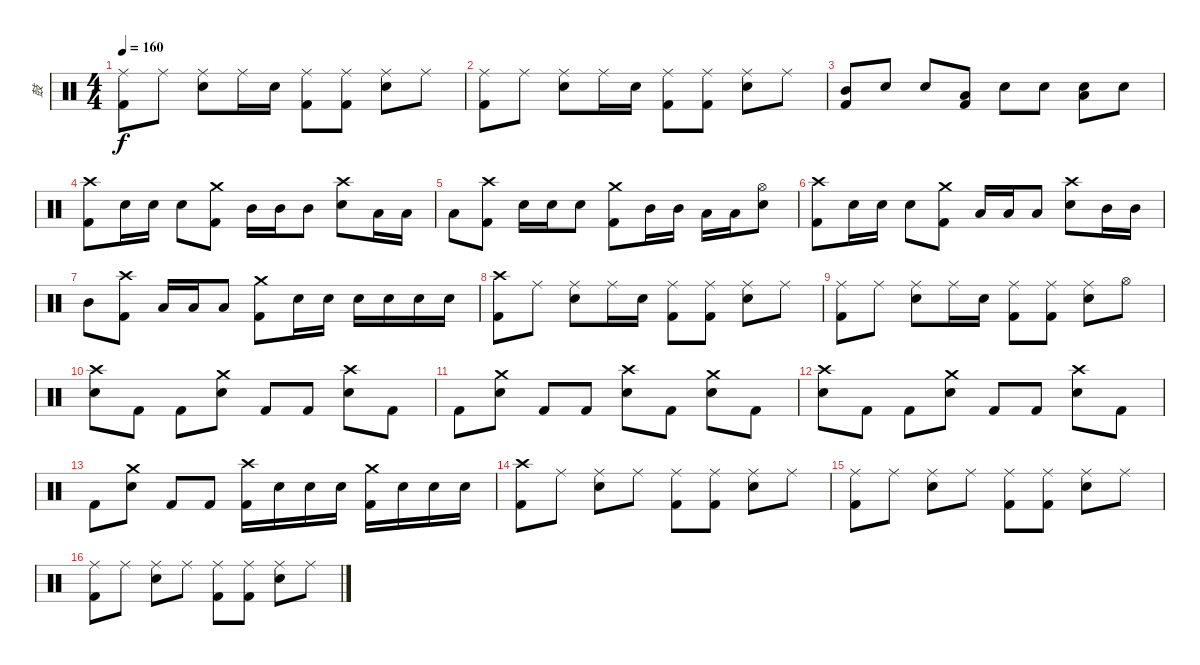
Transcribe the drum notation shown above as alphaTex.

\track ("鼓" "鼓") {instrument percussion}
\staff {score}
\articulation defaults
\ts (4 4)
\tempo 160
\clef neutral
\ks c
("Ride (middle)" "Kick (hit) 2").8{dy f} "Ride (middle)".8 ("Ride (middle)" "Snare (hit) 2").8 "Ride (middle)".16 "Snare (hit) 2".16 ("Ride (middle)" "Kick (hit) 2").8 ("Ride (middle)" "Kick (hit) 2").8 ("Ride (middle)" "Snare (hit) 2").8 "Ride (middle)".8 |
("Ride (middle)" "Kick (hit) 2").8 "Ride (middle)".8 ("Ride (middle)" "Snare (hit) 2").8 "Ride (middle)".16 "Snare (hit) 2".16 ("Ride (middle)" "Kick (hit) 2").8 ("Ride (middle)" "Kick (hit) 2").8 ("Ride (middle)" "Snare (hit) 2").8 "Ride (middle)".8 |
("Mid Tom (hit)" "Kick (hit) 2").8 "Snare (hit) 2".8 "Snare (hit) 2".8 ("Low Tom (hit)" "Kick (hit) 2").8 "Snare (hit) 2".8 "Snare (hit) 2".8 ("Low Floor Tom (hit)" "Snare (hit) 2").8 "Snare (hit) 2".8 |
("Crash high (hit)" "Kick (hit) 2").8 "Snare (hit) 2".16 "Snare (hit) 2".16 "Snare (hit) 2".8 ("Crash medium (hit)" "Kick (hit) 2").8 "Mid Tom (hit)".16 "Mid Tom (hit)".16 "Mid Tom (hit)".8 ("Crash high (hit)" "Snare (hit) 2").8 "Low Tom (hit)".16 "Low Tom (hit)".16 |
"Low Tom (hit)".8 ("Crash high (hit)" "Kick (hit) 2").8 "Snare (hit) 2".16 "Snare (hit) 2".16 "Snare (hit) 2".8 ("Crash medium (hit)" "Kick (hit) 2").8 "Mid Tom (hit)".16 "Mid Tom (hit)".16 "Low Tom (hit)".16 "Low Floor Tom (hit)".16 ("Hi-Hat (open)" "Snare (hit) 2").8 |
("Crash high (hit)" "Kick (hit) 2").8 "Snare (hit) 2".16 "Snare (hit) 2".16 "Snare (hit) 2".8 ("Crash medium (hit)" "Kick (hit) 2").8 "Low Tom (hit)".16 "Low Tom (hit)".16 "Low Tom (hit)".8 ("Crash high (hit)" "Snare (hit) 2").8 "Mid Tom (hit)".16 "Mid Tom (hit)".16 |
"Mid Tom (hit)".8 ("Crash high (hit)" "Kick (hit) 2").8 "Low Floor Tom (hit)".16 "Low Floor Tom (hit)".16 "Low Floor Tom (hit)".8 ("Crash medium (hit)" "Kick (hit) 2").8 "Snare (hit) 2".16 "Snare (hit) 2".16 "Snare (hit) 2".16 "Snare (hit) 2".16 "Snare (hit) 2".16 "Snare (hit) 2".16 |
("Crash high (hit)" "Kick (hit) 2").8 "Ride (middle)".8 ("Ride (middle)" "Snare (hit) 2").8 "Ride (middle)".16 "Snare (hit) 2".16 ("Ride (middle)" "Kick (hit) 2").8 ("Ride (middle)" "Kick (hit) 2").8 ("Ride (middle)" "Snare (hit) 2").8 "Ride (middle)".8 |
("Ride (middle)" "Kick (hit) 2").8 "Ride (middle)".8 ("Ride (middle)" "Snare (hit) 2").8 "Ride (middle)".16 "Snare (hit) 2".16 ("Ride (middle)" "Kick (hit) 2").8 ("Ride (middle)" "Kick (hit) 2").8 ("Ride (middle)" "Snare (hit) 2").8 "Hi-Hat (open)".8 |
("Crash high (hit)" "Snare (hit) 2").8 "Kick (hit) 2".8 "Kick (hit) 2".8 ("Crash medium (hit)" "Snare (hit) 2").8 "Kick (hit) 2".8 "Kick (hit) 2".8 ("Crash high (hit)" "Snare (hit) 2").8 "Kick (hit) 2".8 |
"Kick (hit) 2".8 ("Crash medium (hit)" "Snare (hit) 2").8 "Kick (hit) 2".8 "Kick (hit) 2".8 ("Crash high (hit)" "Snare (hit) 2").8 "Kick (hit) 2".8 ("Crash medium (hit)" "Snare (hit) 2").8 "Kick (hit) 2".8 |
("Crash high (hit)" "Snare (hit) 2").8 "Kick (hit) 2".8 "Kick (hit) 2".8 ("Crash medium (hit)" "Snare (hit) 2").8 "Kick (hit) 2".8 "Kick (hit) 2".8 ("Crash high (hit)" "Snare (hit) 2").8 "Kick (hit) 2".8 |
"Kick (hit) 2".8 ("Crash medium (hit)" "Snare (hit) 2").8 "Kick (hit) 2".8 "Kick (hit) 2".8 ("Crash high (hit)" "Kick (hit) 2").16 "Snare (hit) 2".16 "Snare (hit) 2".16 "Snare (hit) 2".16 ("Crash medium (hit)" "Kick (hit) 2").16 "Snare (hit) 2".16 "Snare (hit) 2".16 "Snare (hit) 2".16 |
("Crash high (hit)" "Kick (hit) 2").8 "Ride (middle)".8 ("Ride (middle)" "Snare (hit) 2").8 "Ride (middle)".8 ("Ride (middle)" "Kick (hit) 2").8 ("Ride (middle)" "Kick (hit) 2").8 ("Ride (middle)" "Snare (hit) 2").8 "Ride (middle)".8 |
("Ride (middle)" "Kick (hit) 2").8 "Ride (middle)".8 ("Ride (middle)" "Snare (hit) 2").8 "Ride (middle)".8 ("Ride (middle)" "Kick (hit) 2").8 ("Ride (middle)" "Kick (hit) 2").8 ("Ride (middle)" "Snare (hit) 2").8 "Ride (middle)".8 |
("Ride (middle)" "Kick (hit) 2").8 "Ride (middle)".8 ("Ride (middle)" "Snare (hit) 2").8 "Ride (middle)".8 ("Ride (middle)" "Kick (hit) 2").8 ("Ride (middle)" "Kick (hit) 2").8 ("Ride (middle)" "Snare (hit) 2").8 "Ride (middle)".8
